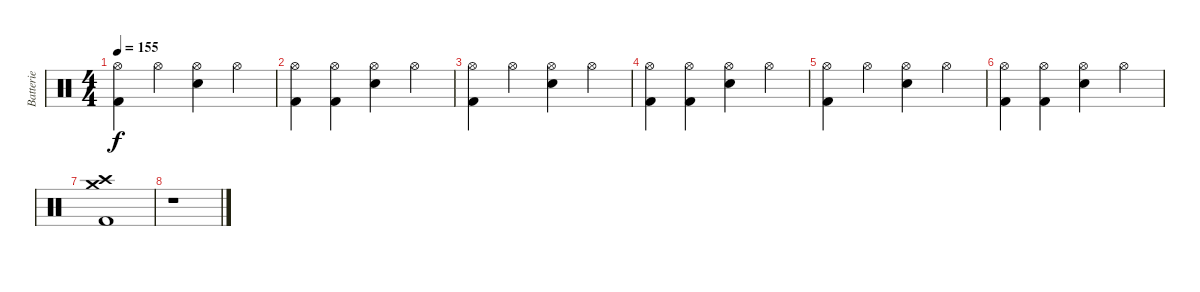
\track ("Batterie" "Batterie") {instrument percussion}
\staff {score}
\articulation defaults
\ts (4 4)
\tempo 155
\clef neutral
\ks c
("Hi-Hat (open)" "Kick (hit) 2").4{dy f} "Hi-Hat (open)".4 ("Hi-Hat (open)" "Snare (hit) 2").4 "Hi-Hat (open)".4 |
("Hi-Hat (open)" "Kick (hit) 2").4 ("Hi-Hat (open)" "Kick (hit) 2").4 ("Hi-Hat (open)" "Snare (hit) 2").4 "Hi-Hat (open)".4 |
("Hi-Hat (open)" "Kick (hit) 2").4 "Hi-Hat (open)".4 ("Hi-Hat (open)" "Snare (hit) 2").4 "Hi-Hat (open)".4 |
("Hi-Hat (open)" "Kick (hit) 2").4 ("Hi-Hat (open)" "Kick (hit) 2").4 ("Hi-Hat (open)" "Snare (hit) 2").4 "Hi-Hat (open)".4 |
("Hi-Hat (open)" "Kick (hit) 2").4 "Hi-Hat (open)".4 ("Hi-Hat (open)" "Snare (hit) 2").4 "Hi-Hat (open)".4 |
("Hi-Hat (open)" "Kick (hit) 2").4 ("Hi-Hat (open)" "Kick (hit) 2").4 ("Hi-Hat (open)" "Snare (hit) 2").4 "Hi-Hat (open)".4 |
("Crash high (hit)" "Crash medium (hit)" "Kick (hit) 2").1 |
r.1
